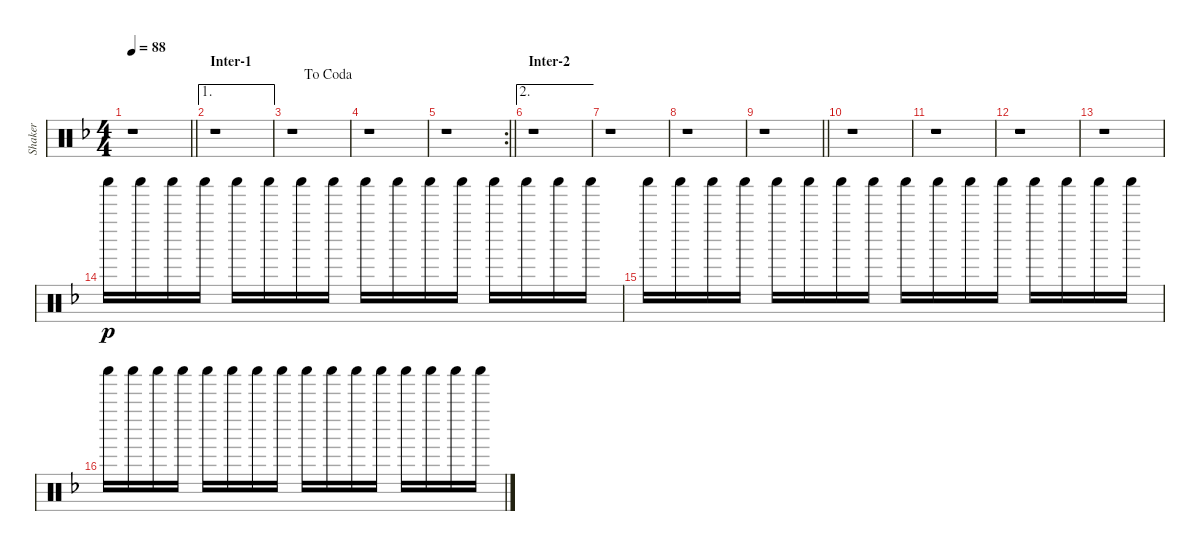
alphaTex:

\track ("Shaker" "Shaker") {instrument percussion}
\staff {score}
\articulation defaults
\ts (4 4)
\tempo 88
\clef neutral
\barLineRight lightlight
\ks dminor
r.1{dy p} |
\ae 1
\section ("" "Inter-1")
r.1 |
\jump dacoda
r.1 |
r.1 |
\rc 2
\barLineRight lightlight
r.1 |
\ae 2
\section ("" "Inter-2")
r.1 |
r.1 |
r.1 |
\barLineRight lightlight
r.1 |
r.1 |
r.1 |
r.1 |
r.1 |
"Shaker (hit)".16 "Shaker (hit)".16 "Shaker (hit)".16 "Shaker (hit)".16 "Shaker (hit)".16 "Shaker (hit)".16 "Shaker (hit)".16 "Shaker (hit)".16 "Shaker (hit)".16 "Shaker (hit)".16 "Shaker (hit)".16 "Shaker (hit)".16 "Shaker (hit)".16 "Shaker (hit)".16 "Shaker (hit)".16 "Shaker (hit)".16 |
"Shaker (hit)".16 "Shaker (hit)".16 "Shaker (hit)".16 "Shaker (hit)".16 "Shaker (hit)".16 "Shaker (hit)".16 "Shaker (hit)".16 "Shaker (hit)".16 "Shaker (hit)".16 "Shaker (hit)".16 "Shaker (hit)".16 "Shaker (hit)".16 "Shaker (hit)".16 "Shaker (hit)".16 "Shaker (hit)".16 "Shaker (hit)".16 |
"Shaker (hit)".16 "Shaker (hit)".16 "Shaker (hit)".16 "Shaker (hit)".16 "Shaker (hit)".16 "Shaker (hit)".16 "Shaker (hit)".16 "Shaker (hit)".16 "Shaker (hit)".16 "Shaker (hit)".16 "Shaker (hit)".16 "Shaker (hit)".16 "Shaker (hit)".16 "Shaker (hit)".16 "Shaker (hit)".16 "Shaker (hit)".16
